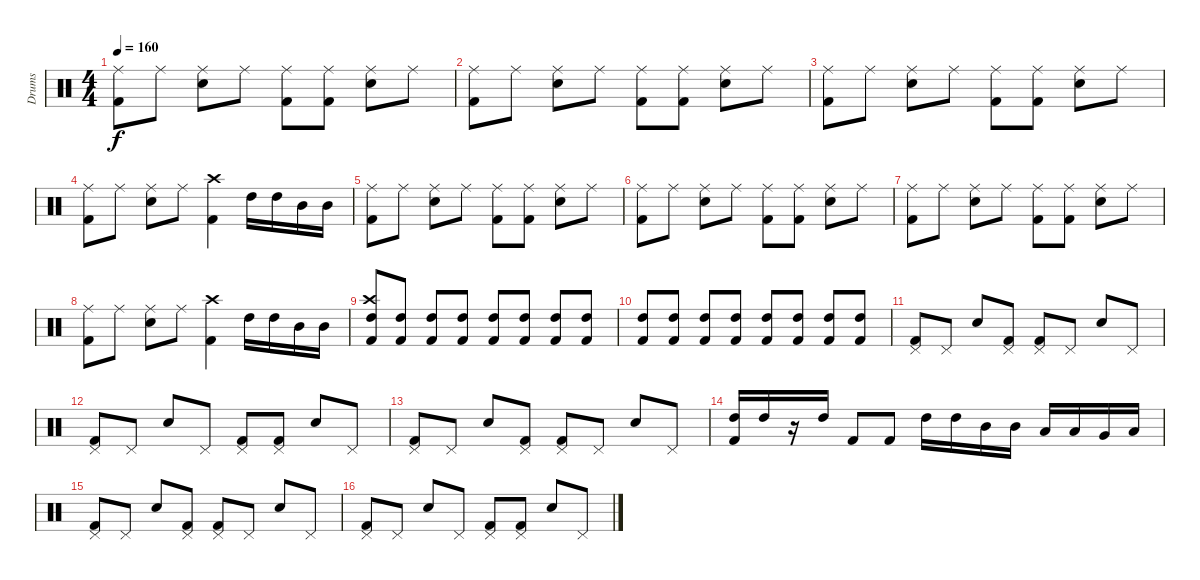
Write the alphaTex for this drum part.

\track ("Drums" "Drums") {instrument percussion}
\staff {score}
\articulation defaults
\ts (4 4)
\tempo 160
\clef neutral
\ks c
("Ride (middle)" "Kick (hit) 2").8{dy f} "Ride (middle)".8 ("Electric Snare (hit)" "Ride (middle)").8 "Ride (middle)".8 ("Ride (middle)" "Kick (hit) 2").8 ("Ride (middle)" "Kick (hit) 2").8 ("Electric Snare (hit)" "Ride (middle)").8 "Ride (middle)".8 |
("Ride (middle)" "Kick (hit) 2").8 "Ride (middle)".8 ("Electric Snare (hit)" "Ride (middle)").8 "Ride (middle)".8 ("Ride (middle)" "Kick (hit) 2").8 ("Ride (middle)" "Kick (hit) 2").8 ("Electric Snare (hit)" "Ride (middle)").8 "Ride (middle)".8 |
("Ride (middle)" "Kick (hit) 2").8 "Ride (middle)".8 ("Electric Snare (hit)" "Ride (middle)").8 "Ride (middle)".8 ("Ride (middle)" "Kick (hit) 2").8 ("Ride (middle)" "Kick (hit) 2").8 ("Electric Snare (hit)" "Ride (middle)").8 "Ride (middle)".8 |
("Ride (middle)" "Kick (hit) 2").8 "Ride (middle)".8 ("Electric Snare (hit)" "Ride (middle)").8 "Ride (middle)".8 ("Crash high (hit)" "Kick (hit) 2").4 "High Tom (hit)".16 "High Tom (hit)".16 "Mid Tom (hit)".16 "Mid Tom (hit)".16 |
("Ride (middle)" "Kick (hit) 2").8 "Ride (middle)".8 ("Electric Snare (hit)" "Ride (middle)").8 "Ride (middle)".8 ("Ride (middle)" "Kick (hit) 2").8 ("Ride (middle)" "Kick (hit) 2").8 ("Electric Snare (hit)" "Ride (middle)").8 "Ride (middle)".8 |
("Ride (middle)" "Kick (hit) 2").8 "Ride (middle)".8 ("Electric Snare (hit)" "Ride (middle)").8 "Ride (middle)".8 ("Ride (middle)" "Kick (hit) 2").8 ("Ride (middle)" "Kick (hit) 2").8 ("Electric Snare (hit)" "Ride (middle)").8 "Ride (middle)".8 |
("Ride (middle)" "Kick (hit) 2").8 "Ride (middle)".8 ("Electric Snare (hit)" "Ride (middle)").8 "Ride (middle)".8 ("Ride (middle)" "Kick (hit) 2").8 ("Ride (middle)" "Kick (hit) 2").8 ("Electric Snare (hit)" "Ride (middle)").8 "Ride (middle)".8 |
("Ride (middle)" "Kick (hit) 2").8 "Ride (middle)".8 ("Electric Snare (hit)" "Ride (middle)").8 "Ride (middle)".8 ("Crash high (hit)" "Kick (hit) 2").4 "High Tom (hit)".16 "High Tom (hit)".16 "Mid Tom (hit)".16 "Mid Tom (hit)".16 |
("Crash high (hit)" "High Tom (hit)" "Kick (hit) 2").8 ("High Tom (hit)" "Kick (hit) 2").8 ("High Tom (hit)" "Kick (hit) 2").8 ("High Tom (hit)" "Kick (hit) 2").8 ("High Tom (hit)" "Kick (hit) 2").8 ("High Tom (hit)" "Kick (hit) 2").8 ("High Tom (hit)" "Kick (hit) 2").8 ("High Tom (hit)" "Kick (hit) 2").8 |
("High Tom (hit)" "Kick (hit) 2").8 ("High Tom (hit)" "Kick (hit) 2").8 ("High Tom (hit)" "Kick (hit) 2").8 ("High Tom (hit)" "Kick (hit) 2").8 ("High Tom (hit)" "Kick (hit) 2").8 ("High Tom (hit)" "Kick (hit) 2").8 ("High Tom (hit)" "Kick (hit) 2").8 ("High Tom (hit)" "Kick (hit) 2").8 |
("Pedal Hi-Hat (hit)" "Kick (hit) 2").8 "Pedal Hi-Hat (hit)".8 "Electric Snare (hit)".8 ("Pedal Hi-Hat (hit)" "Kick (hit) 2").8 ("Pedal Hi-Hat (hit)" "Kick (hit) 2").8 "Pedal Hi-Hat (hit)".8 "Electric Snare (hit)".8 "Pedal Hi-Hat (hit)".8 |
("Pedal Hi-Hat (hit)" "Kick (hit) 2").8 "Pedal Hi-Hat (hit)".8 "Electric Snare (hit)".8 "Pedal Hi-Hat (hit)".8 ("Pedal Hi-Hat (hit)" "Kick (hit) 2").8 ("Pedal Hi-Hat (hit)" "Kick (hit) 2").8 "Electric Snare (hit)".8 "Pedal Hi-Hat (hit)".8 |
("Pedal Hi-Hat (hit)" "Kick (hit) 2").8 "Pedal Hi-Hat (hit)".8 "Electric Snare (hit)".8 ("Pedal Hi-Hat (hit)" "Kick (hit) 2").8 ("Pedal Hi-Hat (hit)" "Kick (hit) 2").8 "Pedal Hi-Hat (hit)".8 "Electric Snare (hit)".8 "Pedal Hi-Hat (hit)".8 |
("High Tom (hit)" "Kick (hit) 2").16 "High Tom (hit)".16 r.16 "High Tom (hit)".16 "Kick (hit) 2".8 "Kick (hit) 2".8 "High Tom (hit)".16 "High Tom (hit)".16 "Mid Tom (hit)".16 "Mid Tom (hit)".16 "Low Tom (hit)".16 "Low Tom (hit)".16 "Very Low Tom (hit)".16 "Low Floor Tom (hit)".16 |
("Pedal Hi-Hat (hit)" "Kick (hit) 2").8 "Pedal Hi-Hat (hit)".8 "Electric Snare (hit)".8 ("Pedal Hi-Hat (hit)" "Kick (hit) 2").8 ("Pedal Hi-Hat (hit)" "Kick (hit) 2").8 "Pedal Hi-Hat (hit)".8 "Electric Snare (hit)".8 "Pedal Hi-Hat (hit)".8 |
("Pedal Hi-Hat (hit)" "Kick (hit) 2").8 "Pedal Hi-Hat (hit)".8 "Electric Snare (hit)".8 "Pedal Hi-Hat (hit)".8 ("Pedal Hi-Hat (hit)" "Kick (hit) 2").8 ("Pedal Hi-Hat (hit)" "Kick (hit) 2").8 "Electric Snare (hit)".8 "Pedal Hi-Hat (hit)".8
